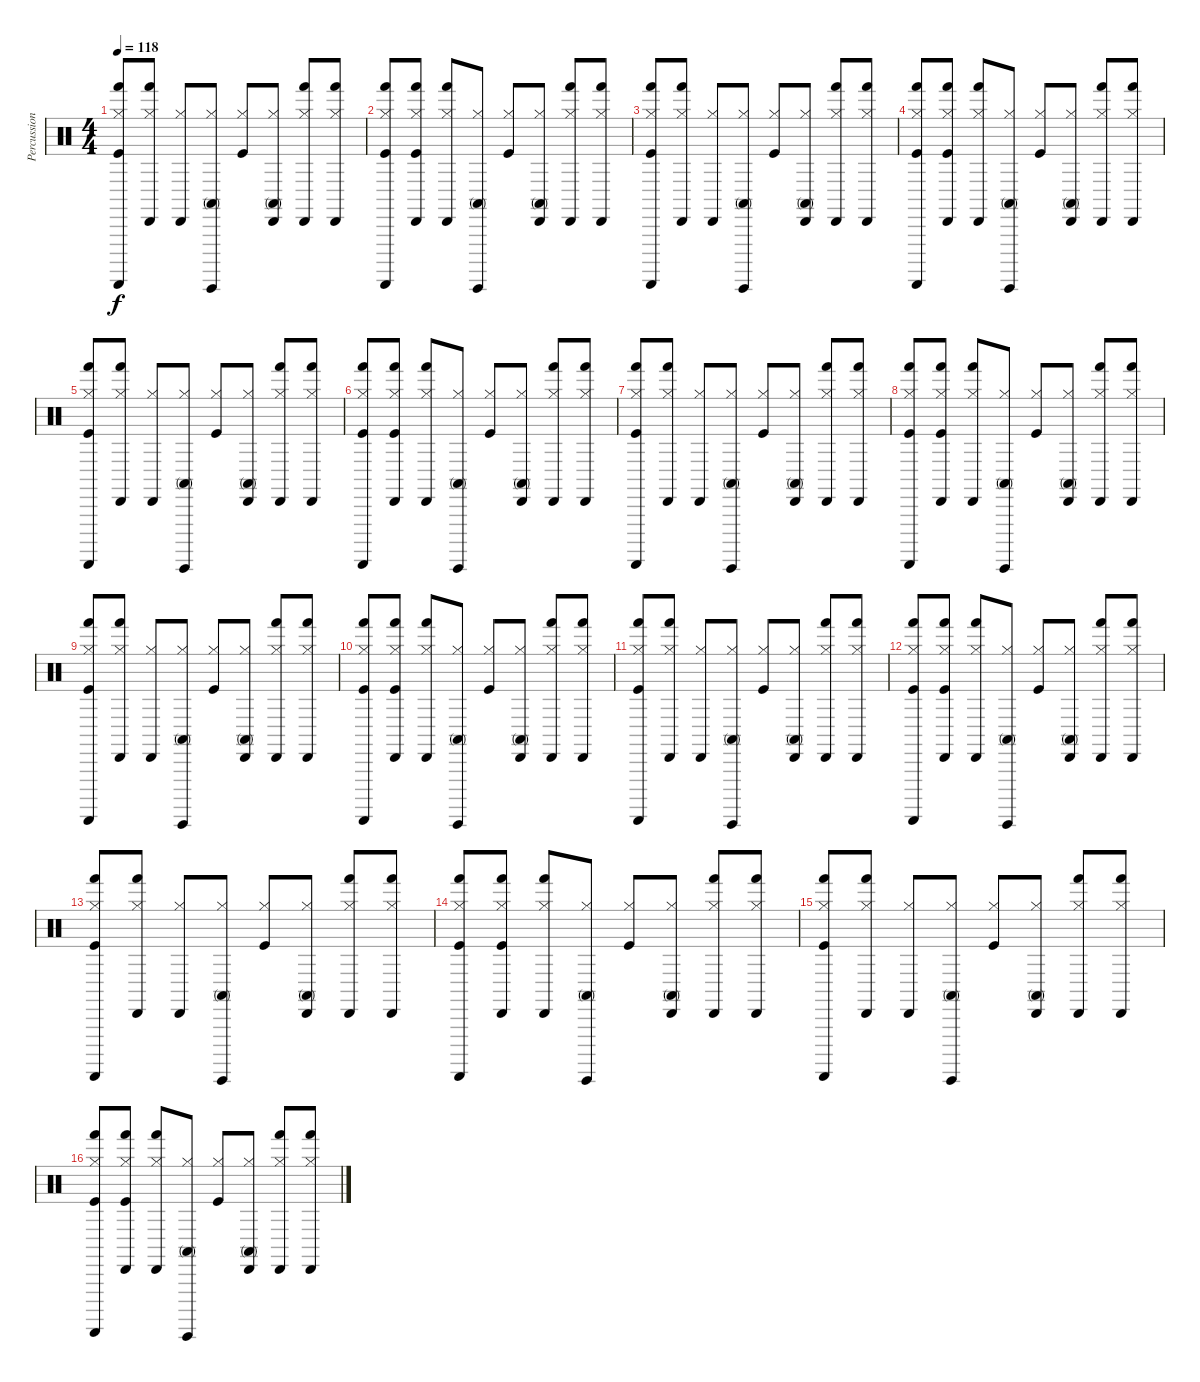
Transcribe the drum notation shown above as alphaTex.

\track ("Percussion" "Percussion") {instrument percussion}
\staff {score}
\articulation defaults
\ts (4 4)
\tempo 118
\clef neutral
\ks c
("Kick (hit)" "Guiro (scrap-return)" "Hand (hit)" "Hi-Hat (closed)").8{dy f} ("Cabasa (hit)" "Hand (hit)" "Hi-Hat (closed)").8 ("Cabasa (hit)" "Hi-Hat (closed)").8 ("Guiro (hit)" "Conga high (mute)" "Hi-Hat (closed)").8 ("Kick (hit)" "Hi-Hat (closed)").8 ("Cabasa (hit)" "Conga high (mute)" "Hi-Hat (closed)").8 ("Cabasa (hit)" "Hand (hit)" "Hi-Hat (closed)").8 ("Cabasa (hit)" "Hand (hit)" "Hi-Hat (closed)").8 |
("Kick (hit)" "Guiro (scrap-return)" "Hand (hit)" "Hi-Hat (closed)").8 ("Cabasa (hit)" "Kick (hit)" "Hand (hit)" "Hi-Hat (closed)").8 ("Cabasa (hit)" "Hand (hit)" "Hi-Hat (closed)").8 ("Guiro (hit)" "Conga high (mute)" "Hi-Hat (closed)").8 ("Kick (hit)" "Hi-Hat (closed)").8 ("Cabasa (hit)" "Conga high (mute)" "Hi-Hat (closed)").8 ("Cabasa (hit)" "Hand (hit)" "Hi-Hat (closed)").8 ("Cabasa (hit)" "Hand (hit)" "Hi-Hat (closed)").8 |
("Kick (hit)" "Guiro (scrap-return)" "Hand (hit)" "Hi-Hat (closed)").8 ("Cabasa (hit)" "Hand (hit)" "Hi-Hat (closed)").8 ("Cabasa (hit)" "Hi-Hat (closed)").8 ("Guiro (hit)" "Conga high (mute)" "Hi-Hat (closed)").8 ("Kick (hit)" "Hi-Hat (closed)").8 ("Cabasa (hit)" "Conga high (mute)" "Hi-Hat (closed)").8 ("Cabasa (hit)" "Hand (hit)" "Hi-Hat (closed)").8 ("Cabasa (hit)" "Hand (hit)" "Hi-Hat (closed)").8 |
("Kick (hit)" "Guiro (scrap-return)" "Hand (hit)" "Hi-Hat (closed)").8 ("Cabasa (hit)" "Kick (hit)" "Hand (hit)" "Hi-Hat (closed)").8 ("Cabasa (hit)" "Hand (hit)" "Hi-Hat (closed)").8 ("Guiro (hit)" "Conga high (mute)" "Hi-Hat (closed)").8 ("Kick (hit)" "Hi-Hat (closed)").8 ("Cabasa (hit)" "Conga high (mute)" "Hi-Hat (closed)").8 ("Cabasa (hit)" "Hand (hit)" "Hi-Hat (closed)").8 ("Cabasa (hit)" "Hand (hit)" "Hi-Hat (closed)").8 |
("Kick (hit)" "Guiro (scrap-return)" "Hand (hit)" "Hi-Hat (closed)").8 ("Cabasa (hit)" "Hand (hit)" "Hi-Hat (closed)").8 ("Cabasa (hit)" "Hi-Hat (closed)").8 ("Guiro (hit)" "Conga high (mute)" "Hi-Hat (closed)").8 ("Kick (hit)" "Hi-Hat (closed)").8 ("Cabasa (hit)" "Conga high (mute)" "Hi-Hat (closed)").8 ("Cabasa (hit)" "Hand (hit)" "Hi-Hat (closed)").8 ("Cabasa (hit)" "Hand (hit)" "Hi-Hat (closed)").8 |
("Kick (hit)" "Guiro (scrap-return)" "Hand (hit)" "Hi-Hat (closed)").8 ("Cabasa (hit)" "Kick (hit)" "Hand (hit)" "Hi-Hat (closed)").8 ("Cabasa (hit)" "Hand (hit)" "Hi-Hat (closed)").8 ("Guiro (hit)" "Conga high (mute)" "Hi-Hat (closed)").8 ("Kick (hit)" "Hi-Hat (closed)").8 ("Cabasa (hit)" "Conga high (mute)" "Hi-Hat (closed)").8 ("Cabasa (hit)" "Hand (hit)" "Hi-Hat (closed)").8 ("Cabasa (hit)" "Hand (hit)" "Hi-Hat (closed)").8 |
("Kick (hit)" "Guiro (scrap-return)" "Hand (hit)" "Hi-Hat (closed)").8 ("Cabasa (hit)" "Hand (hit)" "Hi-Hat (closed)").8 ("Cabasa (hit)" "Hi-Hat (closed)").8 ("Guiro (hit)" "Conga high (mute)" "Hi-Hat (closed)").8 ("Kick (hit)" "Hi-Hat (closed)").8 ("Cabasa (hit)" "Conga high (mute)" "Hi-Hat (closed)").8 ("Cabasa (hit)" "Hand (hit)" "Hi-Hat (closed)").8 ("Cabasa (hit)" "Hand (hit)" "Hi-Hat (closed)").8 |
("Kick (hit)" "Guiro (scrap-return)" "Hand (hit)" "Hi-Hat (closed)").8 ("Cabasa (hit)" "Kick (hit)" "Hand (hit)" "Hi-Hat (closed)").8 ("Cabasa (hit)" "Hand (hit)" "Hi-Hat (closed)").8 ("Guiro (hit)" "Conga high (mute)" "Hi-Hat (closed)").8 ("Kick (hit)" "Hi-Hat (closed)").8 ("Cabasa (hit)" "Conga high (mute)" "Hi-Hat (closed)").8 ("Cabasa (hit)" "Hand (hit)" "Hi-Hat (closed)").8 ("Cabasa (hit)" "Hand (hit)" "Hi-Hat (closed)").8 |
("Kick (hit)" "Guiro (scrap-return)" "Hand (hit)" "Hi-Hat (closed)").8 ("Cabasa (hit)" "Hand (hit)" "Hi-Hat (closed)").8 ("Cabasa (hit)" "Hi-Hat (closed)").8 ("Guiro (hit)" "Conga high (mute)" "Hi-Hat (closed)").8 ("Kick (hit)" "Hi-Hat (closed)").8 ("Cabasa (hit)" "Conga high (mute)" "Hi-Hat (closed)").8 ("Cabasa (hit)" "Hand (hit)" "Hi-Hat (closed)").8 ("Cabasa (hit)" "Hand (hit)" "Hi-Hat (closed)").8 |
("Kick (hit)" "Guiro (scrap-return)" "Hand (hit)" "Hi-Hat (closed)").8 ("Cabasa (hit)" "Kick (hit)" "Hand (hit)" "Hi-Hat (closed)").8 ("Cabasa (hit)" "Hand (hit)" "Hi-Hat (closed)").8 ("Guiro (hit)" "Conga high (mute)" "Hi-Hat (closed)").8 ("Kick (hit)" "Hi-Hat (closed)").8 ("Cabasa (hit)" "Conga high (mute)" "Hi-Hat (closed)").8 ("Cabasa (hit)" "Hand (hit)" "Hi-Hat (closed)").8 ("Cabasa (hit)" "Hand (hit)" "Hi-Hat (closed)").8 |
("Kick (hit)" "Guiro (scrap-return)" "Hand (hit)" "Hi-Hat (closed)").8 ("Cabasa (hit)" "Hand (hit)" "Hi-Hat (closed)").8 ("Cabasa (hit)" "Hi-Hat (closed)").8 ("Guiro (hit)" "Conga high (mute)" "Hi-Hat (closed)").8 ("Kick (hit)" "Hi-Hat (closed)").8 ("Cabasa (hit)" "Conga high (mute)" "Hi-Hat (closed)").8 ("Cabasa (hit)" "Hand (hit)" "Hi-Hat (closed)").8 ("Cabasa (hit)" "Hand (hit)" "Hi-Hat (closed)").8 |
("Kick (hit)" "Guiro (scrap-return)" "Hand (hit)" "Hi-Hat (closed)").8 ("Cabasa (hit)" "Kick (hit)" "Hand (hit)" "Hi-Hat (closed)").8 ("Cabasa (hit)" "Hand (hit)" "Hi-Hat (closed)").8 ("Guiro (hit)" "Conga high (mute)" "Hi-Hat (closed)").8 ("Kick (hit)" "Hi-Hat (closed)").8 ("Cabasa (hit)" "Conga high (mute)" "Hi-Hat (closed)").8 ("Cabasa (hit)" "Hand (hit)" "Hi-Hat (closed)").8 ("Cabasa (hit)" "Hand (hit)" "Hi-Hat (closed)").8 |
("Kick (hit)" "Guiro (scrap-return)" "Hand (hit)" "Hi-Hat (closed)").8 ("Cabasa (hit)" "Hand (hit)" "Hi-Hat (closed)").8 ("Cabasa (hit)" "Hi-Hat (closed)").8 ("Guiro (hit)" "Conga high (mute)" "Hi-Hat (closed)").8 ("Kick (hit)" "Hi-Hat (closed)").8 ("Cabasa (hit)" "Conga high (mute)" "Hi-Hat (closed)").8 ("Cabasa (hit)" "Hand (hit)" "Hi-Hat (closed)").8 ("Cabasa (hit)" "Hand (hit)" "Hi-Hat (closed)").8 |
("Kick (hit)" "Guiro (scrap-return)" "Hand (hit)" "Hi-Hat (closed)").8 ("Cabasa (hit)" "Kick (hit)" "Hand (hit)" "Hi-Hat (closed)").8 ("Cabasa (hit)" "Hand (hit)" "Hi-Hat (closed)").8 ("Guiro (hit)" "Conga high (mute)" "Hi-Hat (closed)").8 ("Kick (hit)" "Hi-Hat (closed)").8 ("Cabasa (hit)" "Conga high (mute)" "Hi-Hat (closed)").8 ("Cabasa (hit)" "Hand (hit)" "Hi-Hat (closed)").8 ("Cabasa (hit)" "Hand (hit)" "Hi-Hat (closed)").8 |
("Kick (hit)" "Guiro (scrap-return)" "Hand (hit)" "Hi-Hat (closed)").8 ("Cabasa (hit)" "Hand (hit)" "Hi-Hat (closed)").8 ("Cabasa (hit)" "Hi-Hat (closed)").8 ("Guiro (hit)" "Conga high (mute)" "Hi-Hat (closed)").8 ("Kick (hit)" "Hi-Hat (closed)").8 ("Cabasa (hit)" "Conga high (mute)" "Hi-Hat (closed)").8 ("Cabasa (hit)" "Hand (hit)" "Hi-Hat (closed)").8 ("Cabasa (hit)" "Hand (hit)" "Hi-Hat (closed)").8 |
("Kick (hit)" "Guiro (scrap-return)" "Hand (hit)" "Hi-Hat (closed)").8 ("Cabasa (hit)" "Kick (hit)" "Hand (hit)" "Hi-Hat (closed)").8 ("Cabasa (hit)" "Hand (hit)" "Hi-Hat (closed)").8 ("Guiro (hit)" "Conga high (mute)" "Hi-Hat (closed)").8 ("Kick (hit)" "Hi-Hat (closed)").8 ("Cabasa (hit)" "Conga high (mute)" "Hi-Hat (closed)").8 ("Cabasa (hit)" "Hand (hit)" "Hi-Hat (closed)").8 ("Cabasa (hit)" "Hand (hit)" "Hi-Hat (closed)").8
